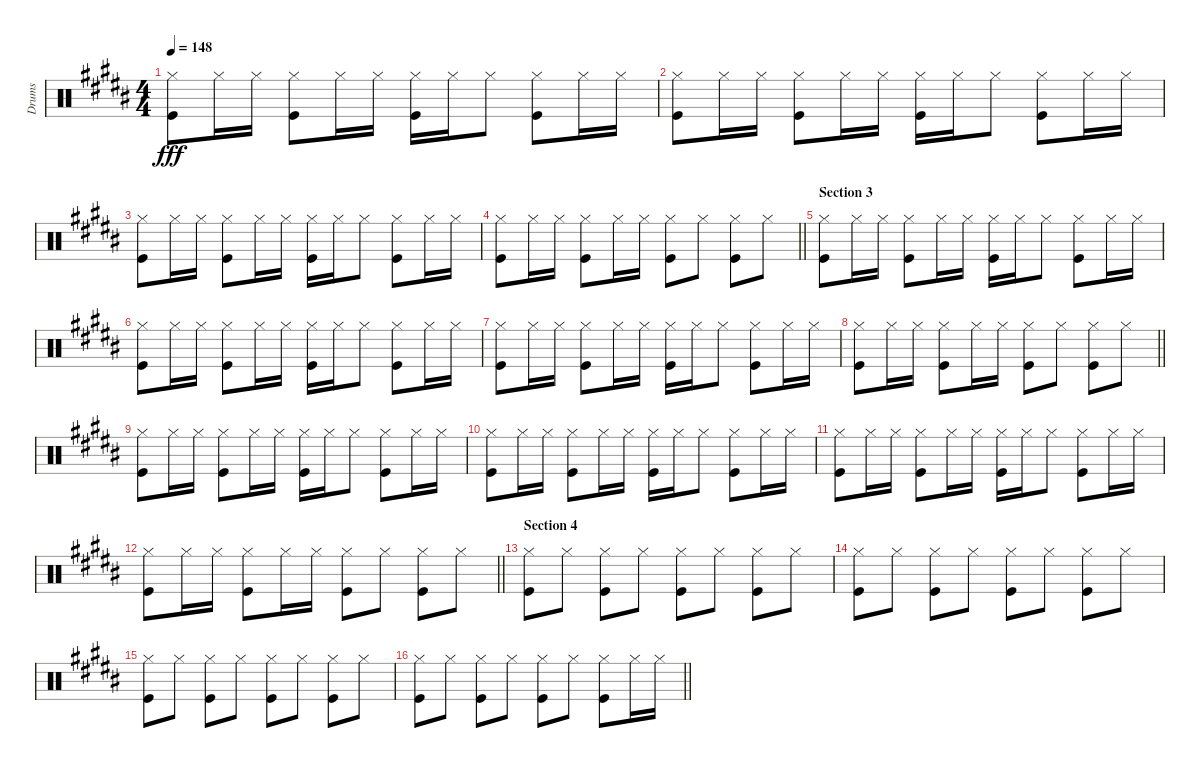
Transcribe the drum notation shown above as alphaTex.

\track ("Drums" "Drums") {instrument percussion}
\staff {score}
\articulation defaults
\ts (4 4)
\tempo 148
\clef neutral
\ks b
("Hi-Hat (closed)" "Kick (hit)").8{dy fff} "Hi-Hat (closed)".16 "Hi-Hat (closed)".16 ("Hi-Hat (closed)" "Kick (hit)").8 "Hi-Hat (closed)".16 "Hi-Hat (closed)".16 ("Hi-Hat (closed)" "Kick (hit)").16 "Hi-Hat (closed)".16 "Hi-Hat (closed)".8 ("Hi-Hat (closed)" "Kick (hit)").8 "Hi-Hat (closed)".16 "Hi-Hat (closed)".16 |
("Hi-Hat (closed)" "Kick (hit)").8 "Hi-Hat (closed)".16 "Hi-Hat (closed)".16 ("Hi-Hat (closed)" "Kick (hit)").8 "Hi-Hat (closed)".16 "Hi-Hat (closed)".16 ("Hi-Hat (closed)" "Kick (hit)").16 "Hi-Hat (closed)".16 "Hi-Hat (closed)".8 ("Hi-Hat (closed)" "Kick (hit)").8 "Hi-Hat (closed)".16 "Hi-Hat (closed)".16 |
("Hi-Hat (closed)" "Kick (hit)").8 "Hi-Hat (closed)".16 "Hi-Hat (closed)".16 ("Hi-Hat (closed)" "Kick (hit)").8 "Hi-Hat (closed)".16 "Hi-Hat (closed)".16 ("Hi-Hat (closed)" "Kick (hit)").16 "Hi-Hat (closed)".16 "Hi-Hat (closed)".8 ("Hi-Hat (closed)" "Kick (hit)").8 "Hi-Hat (closed)".16 "Hi-Hat (closed)".16 |
\barLineRight lightlight
("Hi-Hat (closed)" "Kick (hit)").8 "Hi-Hat (closed)".16 "Hi-Hat (closed)".16 ("Hi-Hat (closed)" "Kick (hit)").8 "Hi-Hat (closed)".16 "Hi-Hat (closed)".16 ("Hi-Hat (closed)" "Kick (hit)").8 "Hi-Hat (closed)".8 ("Hi-Hat (closed)" "Kick (hit)").8 "Hi-Hat (closed)".8 |
\section ("" "Section 3")
("Hi-Hat (closed)" "Kick (hit)").8 "Hi-Hat (closed)".16 "Hi-Hat (closed)".16 ("Hi-Hat (closed)" "Kick (hit)").8 "Hi-Hat (closed)".16 "Hi-Hat (closed)".16 ("Hi-Hat (closed)" "Kick (hit)").16 "Hi-Hat (closed)".16 "Hi-Hat (closed)".8 ("Hi-Hat (closed)" "Kick (hit)").8 "Hi-Hat (closed)".16 "Hi-Hat (closed)".16 |
("Hi-Hat (closed)" "Kick (hit)").8 "Hi-Hat (closed)".16 "Hi-Hat (closed)".16 ("Hi-Hat (closed)" "Kick (hit)").8 "Hi-Hat (closed)".16 "Hi-Hat (closed)".16 ("Hi-Hat (closed)" "Kick (hit)").16 "Hi-Hat (closed)".16 "Hi-Hat (closed)".8 ("Hi-Hat (closed)" "Kick (hit)").8 "Hi-Hat (closed)".16 "Hi-Hat (closed)".16 |
("Hi-Hat (closed)" "Kick (hit)").8 "Hi-Hat (closed)".16 "Hi-Hat (closed)".16 ("Hi-Hat (closed)" "Kick (hit)").8 "Hi-Hat (closed)".16 "Hi-Hat (closed)".16 ("Hi-Hat (closed)" "Kick (hit)").16 "Hi-Hat (closed)".16 "Hi-Hat (closed)".8 ("Hi-Hat (closed)" "Kick (hit)").8 "Hi-Hat (closed)".16 "Hi-Hat (closed)".16 |
\barLineRight lightlight
("Hi-Hat (closed)" "Kick (hit)").8 "Hi-Hat (closed)".16 "Hi-Hat (closed)".16 ("Hi-Hat (closed)" "Kick (hit)").8 "Hi-Hat (closed)".16 "Hi-Hat (closed)".16 ("Hi-Hat (closed)" "Kick (hit)").8 "Hi-Hat (closed)".8 ("Hi-Hat (closed)" "Kick (hit)").8 "Hi-Hat (closed)".8 |
("Hi-Hat (closed)" "Kick (hit)").8 "Hi-Hat (closed)".16 "Hi-Hat (closed)".16 ("Hi-Hat (closed)" "Kick (hit)").8 "Hi-Hat (closed)".16 "Hi-Hat (closed)".16 ("Hi-Hat (closed)" "Kick (hit)").16 "Hi-Hat (closed)".16 "Hi-Hat (closed)".8 ("Hi-Hat (closed)" "Kick (hit)").8 "Hi-Hat (closed)".16 "Hi-Hat (closed)".16 |
("Hi-Hat (closed)" "Kick (hit)").8 "Hi-Hat (closed)".16 "Hi-Hat (closed)".16 ("Hi-Hat (closed)" "Kick (hit)").8 "Hi-Hat (closed)".16 "Hi-Hat (closed)".16 ("Hi-Hat (closed)" "Kick (hit)").16 "Hi-Hat (closed)".16 "Hi-Hat (closed)".8 ("Hi-Hat (closed)" "Kick (hit)").8 "Hi-Hat (closed)".16 "Hi-Hat (closed)".16 |
("Hi-Hat (closed)" "Kick (hit)").8 "Hi-Hat (closed)".16 "Hi-Hat (closed)".16 ("Hi-Hat (closed)" "Kick (hit)").8 "Hi-Hat (closed)".16 "Hi-Hat (closed)".16 ("Hi-Hat (closed)" "Kick (hit)").16 "Hi-Hat (closed)".16 "Hi-Hat (closed)".8 ("Hi-Hat (closed)" "Kick (hit)").8 "Hi-Hat (closed)".16 "Hi-Hat (closed)".16 |
\barLineRight lightlight
("Hi-Hat (closed)" "Kick (hit)").8 "Hi-Hat (closed)".16 "Hi-Hat (closed)".16 ("Hi-Hat (closed)" "Kick (hit)").8 "Hi-Hat (closed)".16 "Hi-Hat (closed)".16 ("Hi-Hat (closed)" "Kick (hit)").8 "Hi-Hat (closed)".8 ("Hi-Hat (closed)" "Kick (hit)").8 "Hi-Hat (closed)".8 |
\section ("" "Section 4")
("Hi-Hat (closed)" "Kick (hit)").8 "Hi-Hat (closed)".8 ("Hi-Hat (closed)" "Kick (hit)").8 "Hi-Hat (closed)".8 ("Hi-Hat (closed)" "Kick (hit)").8 "Hi-Hat (closed)".8 ("Hi-Hat (closed)" "Kick (hit)").8 "Hi-Hat (closed)".8 |
("Hi-Hat (closed)" "Kick (hit)").8 "Hi-Hat (closed)".8 ("Hi-Hat (closed)" "Kick (hit)").8 "Hi-Hat (closed)".8 ("Hi-Hat (closed)" "Kick (hit)").8 "Hi-Hat (closed)".8 ("Hi-Hat (closed)" "Kick (hit)").8 "Hi-Hat (closed)".8 |
("Hi-Hat (closed)" "Kick (hit)").8 "Hi-Hat (closed)".8 ("Hi-Hat (closed)" "Kick (hit)").8 "Hi-Hat (closed)".8 ("Hi-Hat (closed)" "Kick (hit)").8 "Hi-Hat (closed)".8 ("Hi-Hat (closed)" "Kick (hit)").8 "Hi-Hat (closed)".8 |
\barLineRight lightlight
("Hi-Hat (closed)" "Kick (hit)").8 "Hi-Hat (closed)".8 ("Hi-Hat (closed)" "Kick (hit)").8 "Hi-Hat (closed)".8 ("Hi-Hat (closed)" "Kick (hit)").8 "Hi-Hat (closed)".8 ("Hi-Hat (closed)" "Kick (hit)").8 "Hi-Hat (closed)".16 "Hi-Hat (closed)".16
